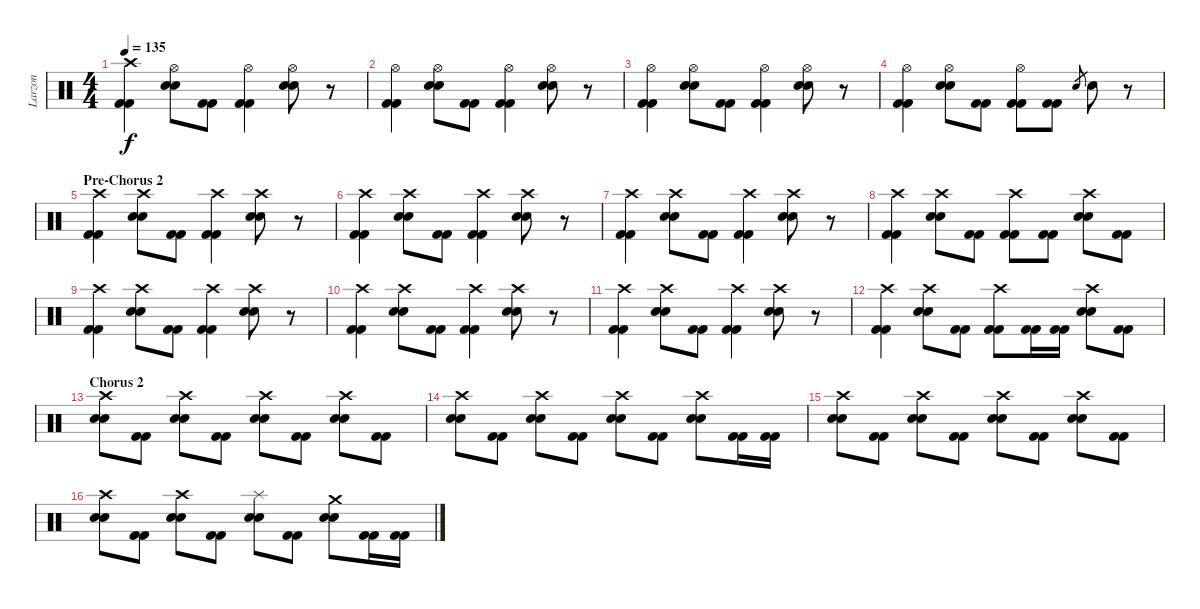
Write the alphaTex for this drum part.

\track ("Larzon" "Larzon") {instrument percussion}
\staff {score}
\articulation defaults
\ts (4 4)
\tempo 135
\clef neutral
\ks c
("Crash high (hit)" "Kick (hit) 2" "Kick (hit) 2").4{dy f} ("Hi-Hat (open)" "Electric Snare (hit)" "Electric Snare (hit)").8 ("Kick (hit) 2" "Kick (hit) 2").8 ("Hi-Hat (open)" "Kick (hit) 2" "Kick (hit) 2").4 ("Hi-Hat (open)" "Electric Snare (hit)" "Electric Snare (hit)").8 r.8 |
("Hi-Hat (open)" "Kick (hit) 2" "Kick (hit) 2").4 ("Hi-Hat (open)" "Electric Snare (hit)" "Electric Snare (hit)").8 ("Kick (hit) 2" "Kick (hit) 2").8 ("Hi-Hat (open)" "Kick (hit) 2" "Kick (hit) 2").4 ("Hi-Hat (open)" "Electric Snare (hit)" "Electric Snare (hit)").8 r.8 |
("Hi-Hat (open)" "Kick (hit) 2" "Kick (hit) 2").4 ("Hi-Hat (open)" "Electric Snare (hit)" "Electric Snare (hit)").8 ("Kick (hit) 2" "Kick (hit) 2").8 ("Hi-Hat (open)" "Kick (hit) 2" "Kick (hit) 2").4 ("Hi-Hat (open)" "Electric Snare (hit)" "Electric Snare (hit)").8 r.8 |
("Hi-Hat (open)" "Kick (hit) 2" "Kick (hit) 2").4 ("Hi-Hat (open)" "Electric Snare (hit)" "Electric Snare (hit)").8 ("Kick (hit) 2" "Kick (hit) 2").8 ("Hi-Hat (open)" "Kick (hit) 2" "Kick (hit) 2").8 ("Kick (hit) 2" "Kick (hit) 2").8 "Electric Snare (hit)".8{gr} "Electric Snare (hit)".8 r.8 |
\section ("" "Pre-Chorus 2")
("Crash high (hit)" "Kick (hit) 2" "Kick (hit) 2").4 ("Crash high (hit)" "Electric Snare (hit)" "Electric Snare (hit)").8 ("Kick (hit) 2" "Kick (hit) 2").8 ("Crash high (hit)" "Kick (hit) 2" "Kick (hit) 2").4 ("Crash high (hit)" "Electric Snare (hit)" "Electric Snare (hit)").8 r.8 |
("Crash high (hit)" "Kick (hit) 2" "Kick (hit) 2").4 ("Crash high (hit)" "Electric Snare (hit)" "Electric Snare (hit)").8 ("Kick (hit) 2" "Kick (hit) 2").8 ("Crash high (hit)" "Kick (hit) 2" "Kick (hit) 2").4 ("Crash high (hit)" "Electric Snare (hit)" "Electric Snare (hit)").8 r.8 |
("Crash high (hit)" "Kick (hit) 2" "Kick (hit) 2").4 ("Crash high (hit)" "Electric Snare (hit)" "Electric Snare (hit)").8 ("Kick (hit) 2" "Kick (hit) 2").8 ("Crash high (hit)" "Kick (hit) 2" "Kick (hit) 2").4 ("Crash high (hit)" "Electric Snare (hit)" "Electric Snare (hit)").8 r.8 |
("Crash high (hit)" "Kick (hit) 2" "Kick (hit) 2").4 ("Crash high (hit)" "Electric Snare (hit)" "Electric Snare (hit)").8 ("Kick (hit) 2" "Kick (hit) 2").8 ("Crash high (hit)" "Kick (hit) 2" "Kick (hit) 2").8 ("Kick (hit) 2" "Kick (hit) 2").8 ("Crash high (hit)" "Electric Snare (hit)" "Electric Snare (hit)").8 ("Kick (hit) 2" "Kick (hit) 2").8 |
("Crash high (hit)" "Kick (hit) 2" "Kick (hit) 2").4 ("Crash high (hit)" "Electric Snare (hit)" "Electric Snare (hit)").8 ("Kick (hit) 2" "Kick (hit) 2").8 ("Crash high (hit)" "Kick (hit) 2" "Kick (hit) 2").4 ("Crash high (hit)" "Electric Snare (hit)" "Electric Snare (hit)").8 r.8 |
("Crash high (hit)" "Kick (hit) 2" "Kick (hit) 2").4 ("Crash high (hit)" "Electric Snare (hit)" "Electric Snare (hit)").8 ("Kick (hit) 2" "Kick (hit) 2").8 ("Crash high (hit)" "Kick (hit) 2" "Kick (hit) 2").4 ("Crash high (hit)" "Electric Snare (hit)" "Electric Snare (hit)").8 r.8 |
("Crash high (hit)" "Kick (hit) 2" "Kick (hit) 2").4 ("Crash high (hit)" "Electric Snare (hit)" "Electric Snare (hit)").8 ("Kick (hit) 2" "Kick (hit) 2").8 ("Crash high (hit)" "Kick (hit) 2" "Kick (hit) 2").4 ("Crash high (hit)" "Electric Snare (hit)" "Electric Snare (hit)").8 r.8 |
("Crash high (hit)" "Kick (hit) 2" "Kick (hit) 2").4 ("Crash high (hit)" "Electric Snare (hit)" "Electric Snare (hit)").8 ("Kick (hit) 2" "Kick (hit) 2").8 ("Crash high (hit)" "Kick (hit) 2" "Kick (hit) 2").8 ("Kick (hit) 2" "Kick (hit) 2").16 ("Kick (hit) 2" "Kick (hit) 2").16 ("Crash high (hit)" "Electric Snare (hit)" "Electric Snare (hit)").8 ("Kick (hit) 2" "Kick (hit) 2").8 |
\section ("" "Chorus 2")
("Crash high (hit)" "Electric Snare (hit)" "Electric Snare (hit)").8 ("Kick (hit) 2" "Kick (hit) 2").8 ("Crash high (hit)" "Electric Snare (hit)" "Electric Snare (hit)").8 ("Kick (hit) 2" "Kick (hit) 2").8 ("Crash high (hit)" "Electric Snare (hit)" "Electric Snare (hit)").8 ("Kick (hit) 2" "Kick (hit) 2").8 ("Crash high (hit)" "Electric Snare (hit)" "Electric Snare (hit)").8 ("Kick (hit) 2" "Kick (hit) 2").8 |
("Crash high (hit)" "Electric Snare (hit)" "Electric Snare (hit)").8 ("Kick (hit) 2" "Kick (hit) 2").8 ("Crash high (hit)" "Electric Snare (hit)" "Electric Snare (hit)").8 ("Kick (hit) 2" "Kick (hit) 2").8 ("Crash high (hit)" "Electric Snare (hit)" "Electric Snare (hit)").8 ("Kick (hit) 2" "Kick (hit) 2").8 ("Crash high (hit)" "Electric Snare (hit)" "Electric Snare (hit)").8 ("Kick (hit) 2" "Kick (hit) 2").16 ("Kick (hit) 2" "Kick (hit) 2").16 |
("Crash high (hit)" "Electric Snare (hit)" "Electric Snare (hit)").8 ("Kick (hit) 2" "Kick (hit) 2").8 ("Crash high (hit)" "Electric Snare (hit)" "Electric Snare (hit)").8 ("Kick (hit) 2" "Kick (hit) 2").8 ("Crash high (hit)" "Electric Snare (hit)" "Electric Snare (hit)").8 ("Kick (hit) 2" "Kick (hit) 2").8 ("Crash high (hit)" "Electric Snare (hit)" "Electric Snare (hit)").8 ("Kick (hit) 2" "Kick (hit) 2").8 |
("Crash high (hit)" "Electric Snare (hit)" "Electric Snare (hit)").8 ("Kick (hit) 2" "Kick (hit) 2").8 ("Crash high (hit)" "Electric Snare (hit)" "Electric Snare (hit)").8 ("Kick (hit) 2" "Kick (hit) 2").8 ("Splash (hit)" "Electric Snare (hit)" "Electric Snare (hit)").8 ("Kick (hit) 2" "Kick (hit) 2").8 ("Crash medium (hit)" "Electric Snare (hit)" "Electric Snare (hit)").8 ("Kick (hit) 2" "Kick (hit) 2").16 ("Kick (hit) 2" "Kick (hit) 2").16
